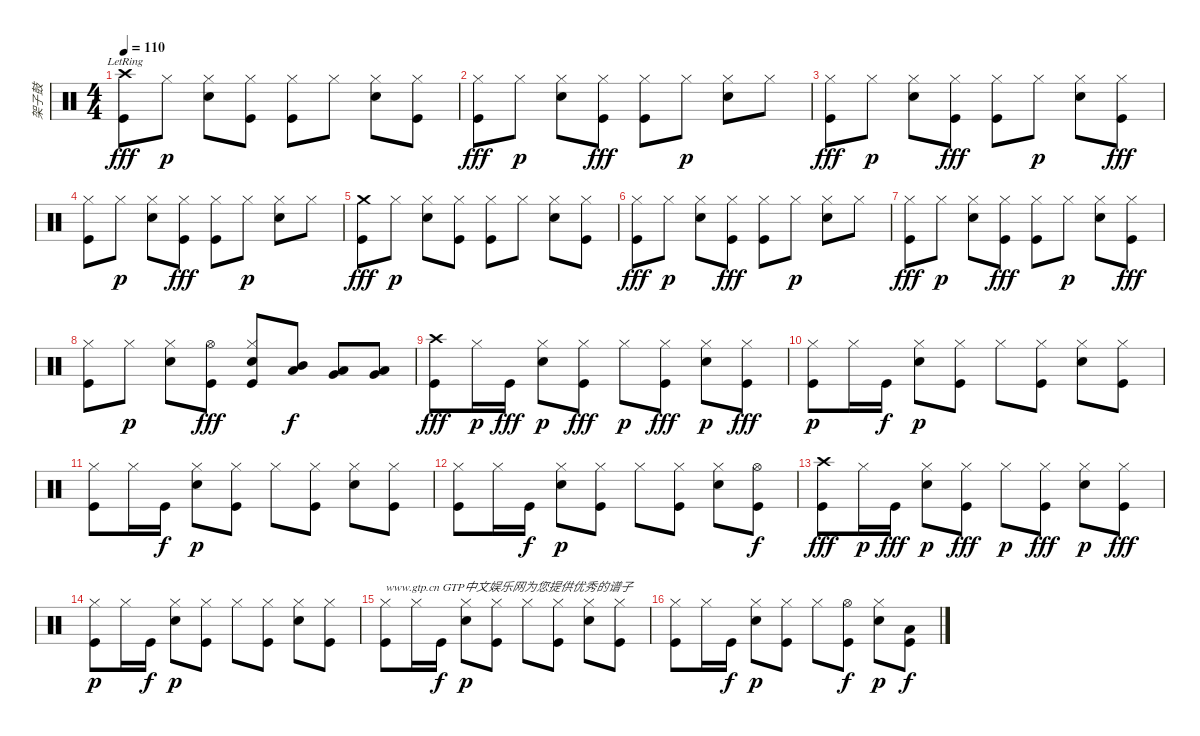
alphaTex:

\track ("架子鼓" "架子鼓") {instrument percussion}
\staff {score}
\articulation defaults
\ts (4 4)
\tempo 110
\clef neutral
\ks c
("Crash high (hit)"{lr} "Kick (hit)").8{dy fff} "Hi-Hat (closed)".8{dy p} ("Electric Snare (hit)" "Hi-Hat (closed)").8 ("Hi-Hat (closed)" "Kick (hit)").8 ("Hi-Hat (closed)" "Kick (hit)").8 "Hi-Hat (closed)".8 ("Electric Snare (hit)" "Hi-Hat (closed)").8 ("Hi-Hat (closed)" "Kick (hit)").8 |
("Hi-Hat (closed)" "Kick (hit)").8{dy fff} "Hi-Hat (closed)".8{dy p} ("Electric Snare (hit)" "Hi-Hat (closed)").8 ("Hi-Hat (closed)" "Kick (hit)").8{dy fff} ("Hi-Hat (closed)" "Kick (hit)").8 "Hi-Hat (closed)".8{dy p} ("Electric Snare (hit)" "Hi-Hat (closed)").8 "Hi-Hat (closed)".8 |
("Hi-Hat (closed)" "Kick (hit)").8{dy fff} "Hi-Hat (closed)".8{dy p} ("Electric Snare (hit)" "Hi-Hat (closed)").8 ("Hi-Hat (closed)" "Kick (hit)").8{dy fff} ("Hi-Hat (closed)" "Kick (hit)").8 "Hi-Hat (closed)".8{dy p} ("Electric Snare (hit)" "Hi-Hat (closed)").8 ("Hi-Hat (closed)" "Kick (hit)").8{dy fff} |
("Hi-Hat (closed)" "Kick (hit)").8 "Hi-Hat (closed)".8{dy p} ("Electric Snare (hit)" "Hi-Hat (closed)").8 ("Hi-Hat (closed)" "Kick (hit)").8{dy fff} ("Hi-Hat (closed)" "Kick (hit)").8 "Hi-Hat (closed)".8{dy p} ("Electric Snare (hit)" "Hi-Hat (closed)").8 "Hi-Hat (closed)".8 |
("Crash medium (hit)" "Kick (hit)").8{dy fff} "Hi-Hat (closed)".8{dy p} ("Electric Snare (hit)" "Hi-Hat (closed)").8 ("Hi-Hat (closed)" "Kick (hit)").8 ("Hi-Hat (closed)" "Kick (hit)").8 "Hi-Hat (closed)".8 ("Electric Snare (hit)" "Hi-Hat (closed)").8 ("Hi-Hat (closed)" "Kick (hit)").8 |
("Hi-Hat (closed)" "Kick (hit)").8{dy fff} "Hi-Hat (closed)".8{dy p} ("Electric Snare (hit)" "Hi-Hat (closed)").8 ("Hi-Hat (closed)" "Kick (hit)").8{dy fff} ("Hi-Hat (closed)" "Kick (hit)").8 "Hi-Hat (closed)".8{dy p} ("Electric Snare (hit)" "Hi-Hat (closed)").8 "Hi-Hat (closed)".8 |
("Hi-Hat (closed)" "Kick (hit)").8{dy fff} "Hi-Hat (closed)".8{dy p} ("Electric Snare (hit)" "Hi-Hat (closed)").8 ("Hi-Hat (closed)" "Kick (hit)").8{dy fff} ("Hi-Hat (closed)" "Kick (hit)").8 "Hi-Hat (closed)".8{dy p} ("Electric Snare (hit)" "Hi-Hat (closed)").8 ("Hi-Hat (closed)" "Kick (hit)").8{dy fff} |
("Hi-Hat (closed)" "Kick (hit)").8 "Hi-Hat (closed)".8{dy p} ("Electric Snare (hit)" "Hi-Hat (closed)").8 ("Hi-Hat (open)" "Kick (hit)").8{dy fff} ("Electric Snare (hit)" "Hi-Hat (closed)" "Kick (hit)").8 ("Mid Tom (hit)" "Low Tom (hit)").8{dy f} ("Low Tom (hit)" "Very Low Tom (hit)").8 ("Very Low Tom (hit)" "Low Floor Tom (hit)").8 |
("Crash high (hit)" "Kick (hit)").8{dy fff} "Hi-Hat (closed)".16{dy p} "Kick (hit)".16{dy fff} ("Electric Snare (hit)" "Hi-Hat (closed)").8{dy p} ("Hi-Hat (closed)" "Kick (hit)").8{dy fff} "Hi-Hat (closed)".8{dy p} ("Hi-Hat (closed)" "Kick (hit)").8{dy fff} ("Electric Snare (hit)" "Hi-Hat (closed)").8{dy p} ("Hi-Hat (closed)" "Kick (hit)").8{dy fff} |
("Hi-Hat (closed)" "Kick (hit)").8{dy p} "Hi-Hat (closed)".16 "Kick (hit)".16{dy f} ("Electric Snare (hit)" "Hi-Hat (closed)").8{dy p} ("Hi-Hat (closed)" "Kick (hit)").8 "Hi-Hat (closed)".8 ("Hi-Hat (closed)" "Kick (hit)").8 ("Electric Snare (hit)" "Hi-Hat (closed)").8 ("Hi-Hat (closed)" "Kick (hit)").8 |
("Hi-Hat (closed)" "Kick (hit)").8 "Hi-Hat (closed)".16 "Kick (hit)".16{dy f} ("Electric Snare (hit)" "Hi-Hat (closed)").8{dy p} ("Hi-Hat (closed)" "Kick (hit)").8 "Hi-Hat (closed)".8 ("Hi-Hat (closed)" "Kick (hit)").8 ("Electric Snare (hit)" "Hi-Hat (closed)").8 ("Hi-Hat (closed)" "Kick (hit)").8 |
("Hi-Hat (closed)" "Kick (hit)").8 "Hi-Hat (closed)".16 "Kick (hit)".16{dy f} ("Electric Snare (hit)" "Hi-Hat (closed)").8{dy p} ("Hi-Hat (closed)" "Kick (hit)").8 "Hi-Hat (closed)".8 ("Hi-Hat (closed)" "Kick (hit)").8 ("Electric Snare (hit)" "Hi-Hat (closed)").8 ("Hi-Hat (open)" "Kick (hit)").8{dy f} |
("Crash high (hit)" "Kick (hit)").8{dy fff} "Hi-Hat (closed)".16{dy p} "Kick (hit)".16{dy fff} ("Electric Snare (hit)" "Hi-Hat (closed)").8{dy p} ("Hi-Hat (closed)" "Kick (hit)").8{dy fff} "Hi-Hat (closed)".8{dy p} ("Hi-Hat (closed)" "Kick (hit)").8{dy fff} ("Electric Snare (hit)" "Hi-Hat (closed)").8{dy p} ("Hi-Hat (closed)" "Kick (hit)").8{dy fff} |
("Hi-Hat (closed)" "Kick (hit)").8{dy p} "Hi-Hat (closed)".16 "Kick (hit)".16{dy f} ("Electric Snare (hit)" "Hi-Hat (closed)").8{dy p} ("Hi-Hat (closed)" "Kick (hit)").8 "Hi-Hat (closed)".8 ("Hi-Hat (closed)" "Kick (hit)").8 ("Electric Snare (hit)" "Hi-Hat (closed)").8 ("Hi-Hat (closed)" "Kick (hit)").8 |
("Hi-Hat (closed)" "Kick (hit)").8{txt "www.gtp.cn GTP中文娱乐网为您提供优秀的谱子"} "Hi-Hat (closed)".16 "Kick (hit)".16{dy f} ("Electric Snare (hit)" "Hi-Hat (closed)").8{dy p} ("Hi-Hat (closed)" "Kick (hit)").8 "Hi-Hat (closed)".8 ("Hi-Hat (closed)" "Kick (hit)").8 ("Electric Snare (hit)" "Hi-Hat (closed)").8 ("Hi-Hat (closed)" "Kick (hit)").8 |
("Hi-Hat (closed)" "Kick (hit)").8 "Hi-Hat (closed)".16 "Kick (hit)".16{dy f} ("Electric Snare (hit)" "Hi-Hat (closed)").8{dy p} ("Hi-Hat (closed)" "Kick (hit)").8 "Hi-Hat (closed)".8 ("Hi-Hat (open)" "Kick (hit)").8{dy f} ("Electric Snare (hit)" "Hi-Hat (closed)").8{dy p} ("Low Floor Tom (hit)" "Kick (hit)").8{dy f}
